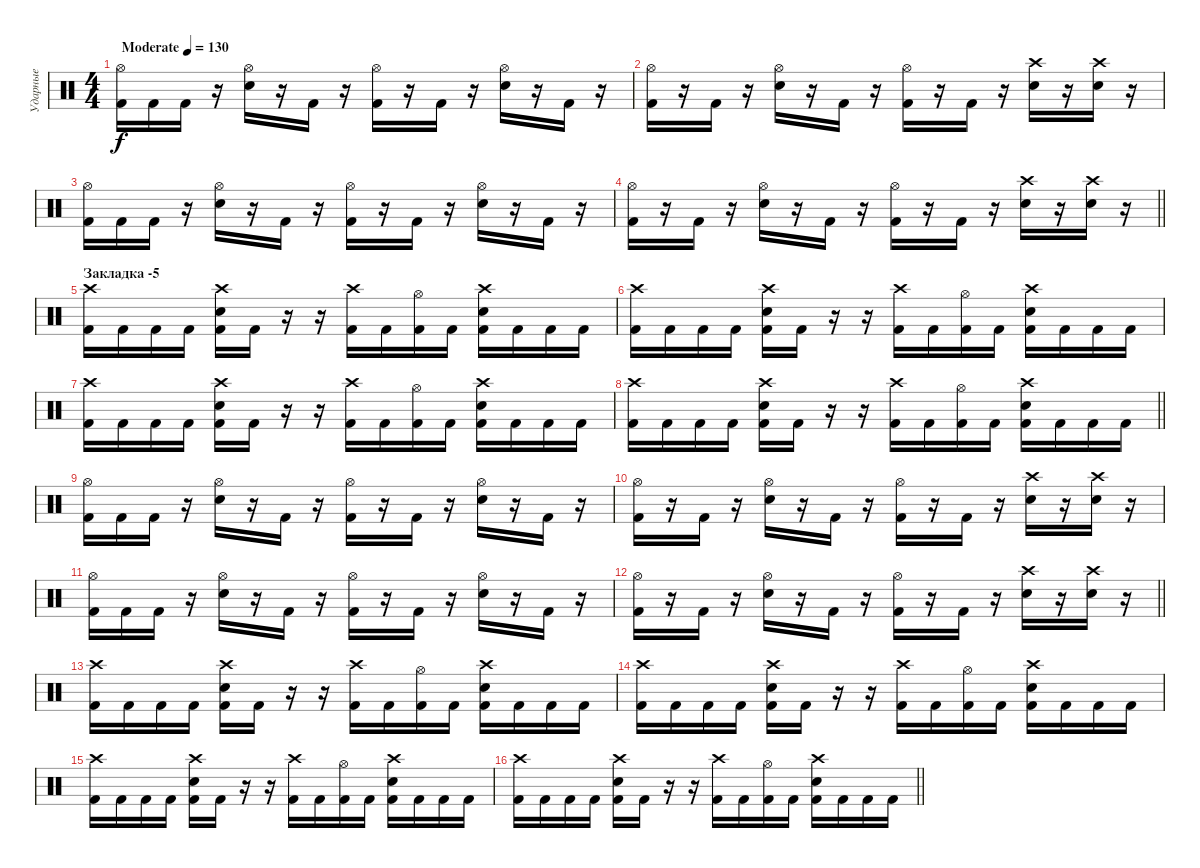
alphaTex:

\track ("Ударные" "Ударные") {instrument percussion}
\staff {score}
\articulation defaults
\ts (4 4)
\tempo (130 "Moderate")
\clef neutral
\ks c
("Hi-Hat (open)" "Kick (hit) 2").16{dy f} "Kick (hit) 2".16 "Kick (hit) 2".16 r.16 ("Hi-Hat (open)" "Electric Snare (hit)").16 r.16 "Kick (hit) 2".16 r.16 ("Hi-Hat (open)" "Kick (hit) 2").16 r.16 "Kick (hit) 2".16 r.16 ("Hi-Hat (open)" "Electric Snare (hit)").16 r.16 "Kick (hit) 2".16 r.16 |
("Hi-Hat (open)" "Kick (hit) 2").16 r.16 "Kick (hit) 2".16 r.16 ("Hi-Hat (open)" "Electric Snare (hit)").16 r.16 "Kick (hit) 2".16 r.16 ("Hi-Hat (open)" "Kick (hit) 2").16 r.16 "Kick (hit) 2".16 r.16 ("Crash high (hit)" "Electric Snare (hit)").16 r.16 ("Crash high (hit)" "Electric Snare (hit)").16 r.16 |
("Hi-Hat (open)" "Kick (hit) 2").16 "Kick (hit) 2".16 "Kick (hit) 2".16 r.16 ("Hi-Hat (open)" "Electric Snare (hit)").16 r.16 "Kick (hit) 2".16 r.16 ("Hi-Hat (open)" "Kick (hit) 2").16 r.16 "Kick (hit) 2".16 r.16 ("Hi-Hat (open)" "Electric Snare (hit)").16 r.16 "Kick (hit) 2".16 r.16 |
\barLineRight lightlight
("Hi-Hat (open)" "Kick (hit) 2").16 r.16 "Kick (hit) 2".16 r.16 ("Hi-Hat (open)" "Electric Snare (hit)").16 r.16 "Kick (hit) 2".16 r.16 ("Hi-Hat (open)" "Kick (hit) 2").16 r.16 "Kick (hit) 2".16 r.16 ("Crash high (hit)" "Electric Snare (hit)").16 r.16 ("Crash high (hit)" "Electric Snare (hit)").16 r.16 |
\section ("" "Закладка -5")
("Crash high (hit)" "Kick (hit) 2").16 "Kick (hit) 2".16 "Kick (hit) 2".16 "Kick (hit) 2".16 ("Crash high (hit)" "Electric Snare (hit)" "Kick (hit) 2").16 "Kick (hit) 2".16 r.16 r.16 ("Crash high (hit)" "Kick (hit) 2").16 "Kick (hit) 2".16 ("Hi-Hat (open)" "Kick (hit) 2").16 "Kick (hit) 2".16 ("Crash high (hit)" "Electric Snare (hit)" "Kick (hit) 2").16 "Kick (hit) 2".16 "Kick (hit) 2".16 "Kick (hit) 2".16 |
("Crash high (hit)" "Kick (hit) 2").16 "Kick (hit) 2".16 "Kick (hit) 2".16 "Kick (hit) 2".16 ("Crash high (hit)" "Electric Snare (hit)" "Kick (hit) 2").16 "Kick (hit) 2".16 r.16 r.16 ("Crash high (hit)" "Kick (hit) 2").16 "Kick (hit) 2".16 ("Hi-Hat (open)" "Kick (hit) 2").16 "Kick (hit) 2".16 ("Crash high (hit)" "Electric Snare (hit)" "Kick (hit) 2").16 "Kick (hit) 2".16 "Kick (hit) 2".16 "Kick (hit) 2".16 |
("Crash high (hit)" "Kick (hit) 2").16 "Kick (hit) 2".16 "Kick (hit) 2".16 "Kick (hit) 2".16 ("Crash high (hit)" "Electric Snare (hit)" "Kick (hit) 2").16 "Kick (hit) 2".16 r.16 r.16 ("Crash high (hit)" "Kick (hit) 2").16 "Kick (hit) 2".16 ("Hi-Hat (open)" "Kick (hit) 2").16 "Kick (hit) 2".16 ("Crash high (hit)" "Electric Snare (hit)" "Kick (hit) 2").16 "Kick (hit) 2".16 "Kick (hit) 2".16 "Kick (hit) 2".16 |
\barLineRight lightlight
("Crash high (hit)" "Kick (hit) 2").16 "Kick (hit) 2".16 "Kick (hit) 2".16 "Kick (hit) 2".16 ("Crash high (hit)" "Electric Snare (hit)" "Kick (hit) 2").16 "Kick (hit) 2".16 r.16 r.16 ("Crash high (hit)" "Kick (hit) 2").16 "Kick (hit) 2".16 ("Hi-Hat (open)" "Kick (hit) 2").16 "Kick (hit) 2".16 ("Crash high (hit)" "Electric Snare (hit)" "Kick (hit) 2").16 "Kick (hit) 2".16 "Kick (hit) 2".16 "Kick (hit) 2".16 |
("Hi-Hat (open)" "Kick (hit) 2").16 "Kick (hit) 2".16 "Kick (hit) 2".16 r.16 ("Hi-Hat (open)" "Electric Snare (hit)").16 r.16 "Kick (hit) 2".16 r.16 ("Hi-Hat (open)" "Kick (hit) 2").16 r.16 "Kick (hit) 2".16 r.16 ("Hi-Hat (open)" "Electric Snare (hit)").16 r.16 "Kick (hit) 2".16 r.16 |
("Hi-Hat (open)" "Kick (hit) 2").16 r.16 "Kick (hit) 2".16 r.16 ("Hi-Hat (open)" "Electric Snare (hit)").16 r.16 "Kick (hit) 2".16 r.16 ("Hi-Hat (open)" "Kick (hit) 2").16 r.16 "Kick (hit) 2".16 r.16 ("Crash high (hit)" "Electric Snare (hit)").16 r.16 ("Crash high (hit)" "Electric Snare (hit)").16 r.16 |
("Hi-Hat (open)" "Kick (hit) 2").16 "Kick (hit) 2".16 "Kick (hit) 2".16 r.16 ("Hi-Hat (open)" "Electric Snare (hit)").16 r.16 "Kick (hit) 2".16 r.16 ("Hi-Hat (open)" "Kick (hit) 2").16 r.16 "Kick (hit) 2".16 r.16 ("Hi-Hat (open)" "Electric Snare (hit)").16 r.16 "Kick (hit) 2".16 r.16 |
\barLineRight lightlight
("Hi-Hat (open)" "Kick (hit) 2").16 r.16 "Kick (hit) 2".16 r.16 ("Hi-Hat (open)" "Electric Snare (hit)").16 r.16 "Kick (hit) 2".16 r.16 ("Hi-Hat (open)" "Kick (hit) 2").16 r.16 "Kick (hit) 2".16 r.16 ("Crash high (hit)" "Electric Snare (hit)").16 r.16 ("Crash high (hit)" "Electric Snare (hit)").16 r.16 |
("Crash high (hit)" "Kick (hit) 2").16 "Kick (hit) 2".16 "Kick (hit) 2".16 "Kick (hit) 2".16 ("Crash high (hit)" "Electric Snare (hit)" "Kick (hit) 2").16 "Kick (hit) 2".16 r.16 r.16 ("Crash high (hit)" "Kick (hit) 2").16 "Kick (hit) 2".16 ("Hi-Hat (open)" "Kick (hit) 2").16 "Kick (hit) 2".16 ("Crash high (hit)" "Electric Snare (hit)" "Kick (hit) 2").16 "Kick (hit) 2".16 "Kick (hit) 2".16 "Kick (hit) 2".16 |
("Crash high (hit)" "Kick (hit) 2").16 "Kick (hit) 2".16 "Kick (hit) 2".16 "Kick (hit) 2".16 ("Crash high (hit)" "Electric Snare (hit)" "Kick (hit) 2").16 "Kick (hit) 2".16 r.16 r.16 ("Crash high (hit)" "Kick (hit) 2").16 "Kick (hit) 2".16 ("Hi-Hat (open)" "Kick (hit) 2").16 "Kick (hit) 2".16 ("Crash high (hit)" "Electric Snare (hit)" "Kick (hit) 2").16 "Kick (hit) 2".16 "Kick (hit) 2".16 "Kick (hit) 2".16 |
("Crash high (hit)" "Kick (hit) 2").16 "Kick (hit) 2".16 "Kick (hit) 2".16 "Kick (hit) 2".16 ("Crash high (hit)" "Electric Snare (hit)" "Kick (hit) 2").16 "Kick (hit) 2".16 r.16 r.16 ("Crash high (hit)" "Kick (hit) 2").16 "Kick (hit) 2".16 ("Hi-Hat (open)" "Kick (hit) 2").16 "Kick (hit) 2".16 ("Crash high (hit)" "Electric Snare (hit)" "Kick (hit) 2").16 "Kick (hit) 2".16 "Kick (hit) 2".16 "Kick (hit) 2".16 |
\barLineRight lightlight
("Crash high (hit)" "Kick (hit) 2").16 "Kick (hit) 2".16 "Kick (hit) 2".16 "Kick (hit) 2".16 ("Crash high (hit)" "Electric Snare (hit)" "Kick (hit) 2").16 "Kick (hit) 2".16 r.16 r.16 ("Crash high (hit)" "Kick (hit) 2").16 "Kick (hit) 2".16 ("Hi-Hat (open)" "Kick (hit) 2").16 "Kick (hit) 2".16 ("Crash high (hit)" "Electric Snare (hit)" "Kick (hit) 2").16 "Kick (hit) 2".16 "Kick (hit) 2".16 "Kick (hit) 2".16
